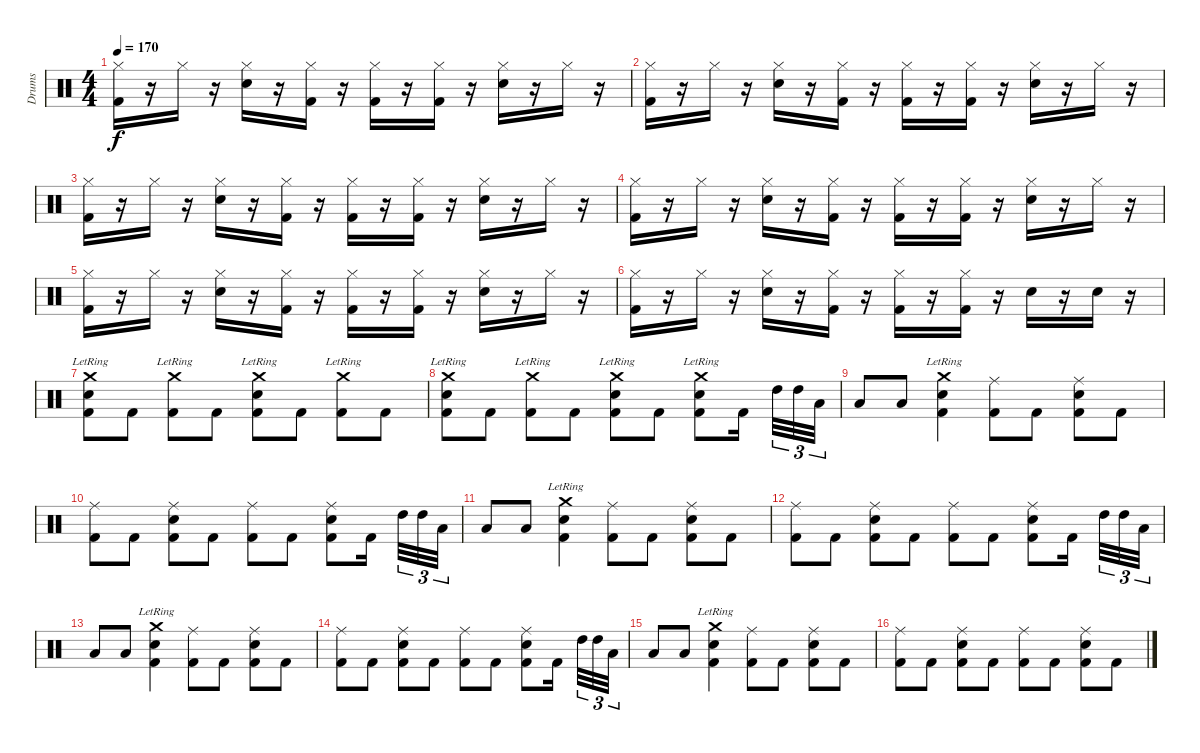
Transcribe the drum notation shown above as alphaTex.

\track ("Drums" "Drums") {instrument percussion}
\staff {score}
\articulation defaults
\ts (4 4)
\tempo 170
\clef neutral
\ks c
("Kick (hit) 2" "Hi-Hat (closed)").16{dy f} r.16 "Hi-Hat (closed)".16 r.16 ("Hi-Hat (closed)" "Electric Snare (hit)").16 r.16 ("Kick (hit) 2" "Hi-Hat (closed)").16 r.16 ("Kick (hit) 2" "Hi-Hat (closed)").16 r.16 ("Kick (hit) 2" "Hi-Hat (closed)").16 r.16 ("Hi-Hat (closed)" "Electric Snare (hit)").16 r.16 "Hi-Hat (closed)".16 r.16 |
("Kick (hit) 2" "Hi-Hat (closed)").16 r.16 "Hi-Hat (closed)".16 r.16 ("Hi-Hat (closed)" "Electric Snare (hit)").16 r.16 ("Kick (hit) 2" "Hi-Hat (closed)").16 r.16 ("Kick (hit) 2" "Hi-Hat (closed)").16 r.16 ("Kick (hit) 2" "Hi-Hat (closed)").16 r.16 ("Hi-Hat (closed)" "Electric Snare (hit)").16 r.16 "Hi-Hat (closed)".16 r.16 |
("Kick (hit) 2" "Hi-Hat (closed)").16 r.16 "Hi-Hat (closed)".16 r.16 ("Hi-Hat (closed)" "Electric Snare (hit)").16 r.16 ("Kick (hit) 2" "Hi-Hat (closed)").16 r.16 ("Kick (hit) 2" "Hi-Hat (closed)").16 r.16 ("Kick (hit) 2" "Hi-Hat (closed)").16 r.16 ("Hi-Hat (closed)" "Electric Snare (hit)").16 r.16 "Hi-Hat (closed)".16 r.16 |
("Kick (hit) 2" "Hi-Hat (closed)").16 r.16 "Hi-Hat (closed)".16 r.16 ("Hi-Hat (closed)" "Electric Snare (hit)").16 r.16 ("Kick (hit) 2" "Hi-Hat (closed)").16 r.16 ("Kick (hit) 2" "Hi-Hat (closed)").16 r.16 ("Kick (hit) 2" "Hi-Hat (closed)").16 r.16 ("Hi-Hat (closed)" "Electric Snare (hit)").16 r.16 "Hi-Hat (closed)".16 r.16 |
("Kick (hit) 2" "Hi-Hat (closed)").16 r.16 "Hi-Hat (closed)".16 r.16 ("Hi-Hat (closed)" "Electric Snare (hit)").16 r.16 ("Kick (hit) 2" "Hi-Hat (closed)").16 r.16 ("Kick (hit) 2" "Hi-Hat (closed)").16 r.16 ("Kick (hit) 2" "Hi-Hat (closed)").16 r.16 ("Hi-Hat (closed)" "Electric Snare (hit)").16 r.16 "Hi-Hat (closed)".16 r.16 |
("Kick (hit) 2" "Hi-Hat (closed)").16 r.16 "Hi-Hat (closed)".16 r.16 ("Hi-Hat (closed)" "Electric Snare (hit)").16 r.16 ("Kick (hit) 2" "Hi-Hat (closed)").16 r.16 ("Kick (hit) 2" "Hi-Hat (closed)").16 r.16 ("Kick (hit) 2" "Hi-Hat (closed)").16 r.16 "Electric Snare (hit)".16 r.16 "Electric Snare (hit)".16 r.16 |
("Crash medium (hit)"{lr} "Electric Snare (hit)" "Kick (hit) 2").8 "Kick (hit) 2".8 ("Crash medium (hit)"{lr} "Kick (hit) 2").8 "Kick (hit) 2".8 ("Crash medium (hit)"{lr} "Electric Snare (hit)" "Kick (hit) 2").8 "Kick (hit) 2".8 ("Crash medium (hit)"{lr} "Kick (hit) 2").8 "Kick (hit) 2".8 |
("Crash medium (hit)"{lr} "Electric Snare (hit)" "Kick (hit) 2").8 "Kick (hit) 2".8 ("Crash medium (hit)"{lr} "Kick (hit) 2").8 "Kick (hit) 2".8 ("Crash medium (hit)"{lr} "Electric Snare (hit)" "Kick (hit) 2").8 "Kick (hit) 2".8 ("Crash medium (hit)"{lr} "Electric Snare (hit)" "Kick (hit) 2").8 "Kick (hit) 2".16 "High Tom (hit)".32{tu (3 2)} "High Tom (hit)".32{tu (3 2)} "Low Tom (hit)".32{tu (3 2)} |
"Low Tom (hit)".8 "Low Floor Tom (hit)".8 ("Crash medium (hit)"{lr} "Electric Snare (hit)" "Kick (hit) 2").4 ("Ride (middle)" "Kick (hit) 2").8 "Kick (hit) 2".8 ("Ride (middle)" "Electric Snare (hit)" "Kick (hit) 2").8 "Kick (hit) 2".8 |
("Ride (middle)" "Kick (hit) 2").8 "Kick (hit) 2".8 ("Ride (middle)" "Electric Snare (hit)" "Kick (hit) 2").8 "Kick (hit) 2".8 ("Ride (middle)" "Kick (hit) 2").8 "Kick (hit) 2".8 ("Ride (middle)" "Electric Snare (hit)" "Kick (hit) 2").8 "Kick (hit) 2".16 "High Tom (hit)".32{tu (3 2)} "High Tom (hit)".32{tu (3 2)} "Low Tom (hit)".32{tu (3 2)} |
"Low Tom (hit)".8 "Low Floor Tom (hit)".8 ("Crash medium (hit)"{lr} "Electric Snare (hit)" "Kick (hit) 2").4 ("Ride (middle)" "Kick (hit) 2").8 "Kick (hit) 2".8 ("Ride (middle)" "Electric Snare (hit)" "Kick (hit) 2").8 "Kick (hit) 2".8 |
("Ride (middle)" "Kick (hit) 2").8 "Kick (hit) 2".8 ("Ride (middle)" "Electric Snare (hit)" "Kick (hit) 2").8 "Kick (hit) 2".8 ("Ride (middle)" "Kick (hit) 2").8 "Kick (hit) 2".8 ("Ride (middle)" "Electric Snare (hit)" "Kick (hit) 2").8 "Kick (hit) 2".16 "High Tom (hit)".32{tu (3 2)} "High Tom (hit)".32{tu (3 2)} "Low Tom (hit)".32{tu (3 2)} |
"Low Tom (hit)".8 "Low Floor Tom (hit)".8 ("Crash medium (hit)"{lr} "Electric Snare (hit)" "Kick (hit) 2").4 ("Ride (middle)" "Kick (hit) 2").8 "Kick (hit) 2".8 ("Ride (middle)" "Electric Snare (hit)" "Kick (hit) 2").8 "Kick (hit) 2".8 |
("Ride (middle)" "Kick (hit) 2").8 "Kick (hit) 2".8 ("Ride (middle)" "Electric Snare (hit)" "Kick (hit) 2").8 "Kick (hit) 2".8 ("Ride (middle)" "Kick (hit) 2").8 "Kick (hit) 2".8 ("Ride (middle)" "Electric Snare (hit)" "Kick (hit) 2").8 "Kick (hit) 2".16 "High Tom (hit)".32{tu (3 2)} "High Tom (hit)".32{tu (3 2)} "Low Tom (hit)".32{tu (3 2)} |
"Low Tom (hit)".8 "Low Floor Tom (hit)".8 ("Crash medium (hit)"{lr} "Electric Snare (hit)" "Kick (hit) 2").4 ("Ride (middle)" "Kick (hit) 2").8 "Kick (hit) 2".8 ("Ride (middle)" "Electric Snare (hit)" "Kick (hit) 2").8 "Kick (hit) 2".8 |
("Ride (middle)" "Kick (hit) 2").8 "Kick (hit) 2".8 ("Ride (middle)" "Electric Snare (hit)" "Kick (hit) 2").8 "Kick (hit) 2".8 ("Ride (middle)" "Kick (hit) 2").8 "Kick (hit) 2".8 ("Ride (middle)" "Electric Snare (hit)" "Kick (hit) 2").8 "Kick (hit) 2".8
